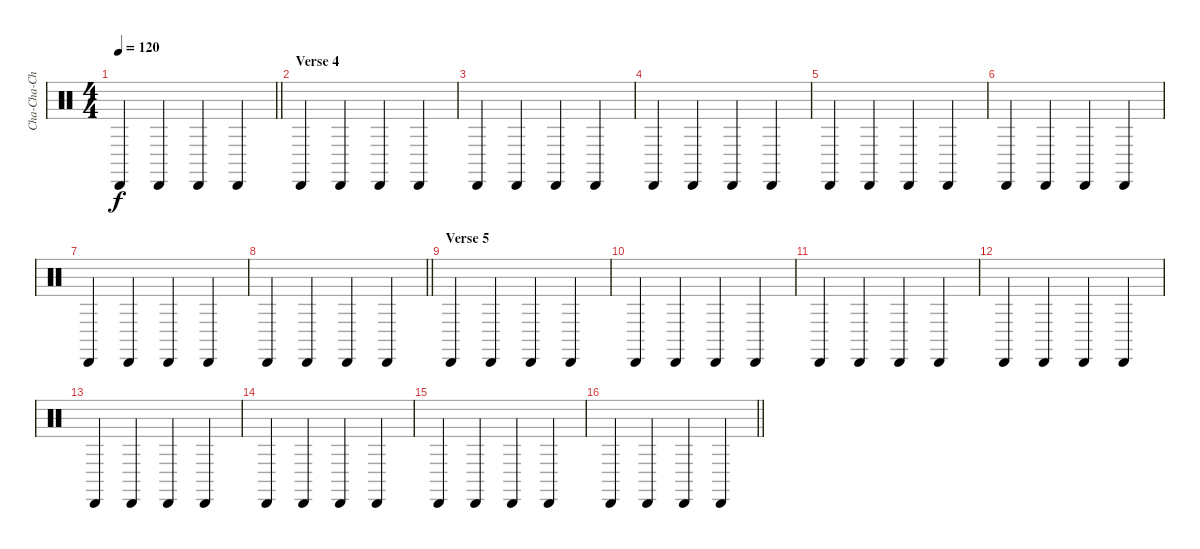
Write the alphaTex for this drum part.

\track ("Cha-Cha-Cha's" "Cha-Cha-Ch") {instrument percussion}
\staff {score}
\articulation defaults
\ts (4 4)
\tempo 120
\clef neutral
\barLineRight lightlight
\ks c "Cabasa (hit)".4{dy f} "Cabasa (hit)".4 "Cabasa (hit)".4 "Cabasa (hit)".4
|
\section ("" "Verse 4")
"Cabasa (hit)".4 "Cabasa (hit)".4 "Cabasa (hit)".4 "Cabasa (hit)".4 |
"Cabasa (hit)".4 "Cabasa (hit)".4 "Cabasa (hit)".4 "Cabasa (hit)".4 |
"Cabasa (hit)".4 "Cabasa (hit)".4 "Cabasa (hit)".4 "Cabasa (hit)".4 |
"Cabasa (hit)".4 "Cabasa (hit)".4 "Cabasa (hit)".4 "Cabasa (hit)".4 |
"Cabasa (hit)".4 "Cabasa (hit)".4 "Cabasa (hit)".4 "Cabasa (hit)".4 |
"Cabasa (hit)".4 "Cabasa (hit)".4 "Cabasa (hit)".4 "Cabasa (hit)".4 |
\barLineRight lightlight "Cabasa (hit)".4 "Cabasa (hit)".4 "Cabasa (hit)".4 "Cabasa (hit)".4
|
\section ("" "Verse 5")
"Cabasa (hit)".4 "Cabasa (hit)".4 "Cabasa (hit)".4 "Cabasa (hit)".4 |
"Cabasa (hit)".4 "Cabasa (hit)".4 "Cabasa (hit)".4 "Cabasa (hit)".4 |
"Cabasa (hit)".4 "Cabasa (hit)".4 "Cabasa (hit)".4 "Cabasa (hit)".4 |
"Cabasa (hit)".4 "Cabasa (hit)".4 "Cabasa (hit)".4 "Cabasa (hit)".4 |
"Cabasa (hit)".4 "Cabasa (hit)".4 "Cabasa (hit)".4 "Cabasa (hit)".4 |
"Cabasa (hit)".4 "Cabasa (hit)".4 "Cabasa (hit)".4 "Cabasa (hit)".4 |
"Cabasa (hit)".4 "Cabasa (hit)".4 "Cabasa (hit)".4 "Cabasa (hit)".4 |
\barLineRight lightlight "Cabasa (hit)".4 "Cabasa (hit)".4 "Cabasa (hit)".4 "Cabasa (hit)".4
